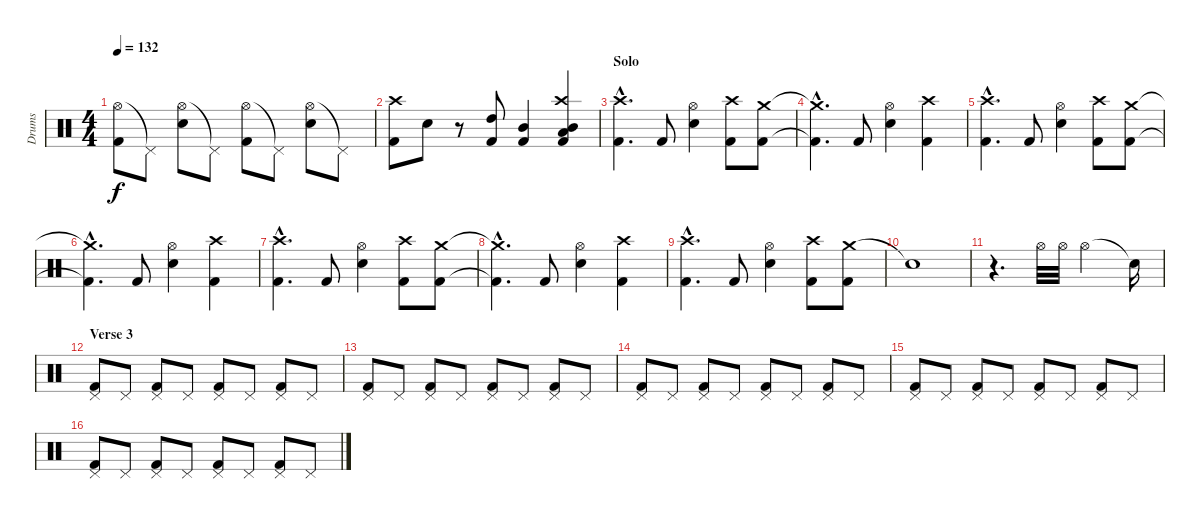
\track ("Drums" "Drums") {instrument percussion}
\staff {score}
\articulation defaults
\ts (4 4)
\tempo 132
\clef neutral
\ks c
("Hi-Hat (open)" "Kick (hit) 2").8{dy f} "Pedal Hi-Hat (hit)"{t}.8 ("Hi-Hat (open)" "Snare (hit) 2").8 "Pedal Hi-Hat (hit)"{t}.8 ("Hi-Hat (open)" "Kick (hit) 2").8 "Pedal Hi-Hat (hit)"{t}.8 ("Hi-Hat (open)" "Snare (hit) 2").8 "Pedal Hi-Hat (hit)"{t}.8 |
("Crash high (hit)" "Kick (hit) 2").8 "Snare (hit) 2".8 r.8 ("High Tom (hit)" "Kick (hit) 2").8 ("Mid Tom (hit)" "Kick (hit) 2").4 ("Crash high (hit)" "Low Tom (hit)" "Mid Tom (hit)" "Kick (hit) 2").4 |
\section ("" "Solo")
("Crash high (hit)"{hac} "Kick (hit) 2"{hac}).4{d} "Kick (hit) 2".8 ("Hi-Hat (open)" "Snare (hit) 2").4 ("Crash high (hit)" "Kick (hit) 2").8 ("Crash medium (hit)" "Kick (hit) 2").8 |
("Crash medium (hit)"{hac t} "Kick (hit) 2"{hac t}).4{d} "Kick (hit) 2".8 ("Hi-Hat (open)" "Snare (hit) 2").4 ("Crash high (hit)" "Kick (hit) 2").4 |
("Crash high (hit)"{hac} "Kick (hit) 2"{hac}).4{d} "Kick (hit) 2".8 ("Hi-Hat (open)" "Snare (hit) 2").4 ("Crash high (hit)" "Kick (hit) 2").8 ("Crash medium (hit)" "Kick (hit) 2").8 |
("Crash medium (hit)"{hac t} "Kick (hit) 2"{hac t}).4{d} "Kick (hit) 2".8 ("Hi-Hat (open)" "Snare (hit) 2").4 ("Crash high (hit)" "Kick (hit) 2").4 |
("Crash high (hit)"{hac} "Kick (hit) 2"{hac}).4{d} "Kick (hit) 2".8 ("Hi-Hat (open)" "Snare (hit) 2").4 ("Crash high (hit)" "Kick (hit) 2").8 ("Crash medium (hit)" "Kick (hit) 2").8 |
("Crash medium (hit)"{hac t} "Kick (hit) 2"{hac t}).4{d} "Kick (hit) 2".8 ("Hi-Hat (open)" "Snare (hit) 2").4 ("Crash high (hit)" "Kick (hit) 2").4 |
("Crash high (hit)"{hac} "Kick (hit) 2"{hac}).4{d} "Kick (hit) 2".8 ("Hi-Hat (open)" "Snare (hit) 2").4 ("Crash high (hit)" "Kick (hit) 2").8 ("Crash medium (hit)" "Kick (hit) 2").8 |
"Snare (hit)"{t}.1 |
r.4{d} "Hi-Hat (open)".32 "Hi-Hat (open)".32 "Hi-Hat (open)".2 "Snare (hit)"{t}.16 |
\section ("" "Verse 3")
("Pedal Hi-Hat (hit)" "Kick (hit) 2").8 "Pedal Hi-Hat (hit)".8 ("Pedal Hi-Hat (hit)" "Kick (hit) 2").8 "Pedal Hi-Hat (hit)".8 ("Pedal Hi-Hat (hit)" "Kick (hit) 2").8 "Pedal Hi-Hat (hit)".8 ("Pedal Hi-Hat (hit)" "Kick (hit) 2").8 "Pedal Hi-Hat (hit)".8 |
("Pedal Hi-Hat (hit)" "Kick (hit) 2").8 "Pedal Hi-Hat (hit)".8 ("Pedal Hi-Hat (hit)" "Kick (hit) 2").8 "Pedal Hi-Hat (hit)".8 ("Pedal Hi-Hat (hit)" "Kick (hit) 2").8 "Pedal Hi-Hat (hit)".8 ("Pedal Hi-Hat (hit)" "Kick (hit) 2").8 "Pedal Hi-Hat (hit)".8 |
("Pedal Hi-Hat (hit)" "Kick (hit) 2").8 "Pedal Hi-Hat (hit)".8 ("Pedal Hi-Hat (hit)" "Kick (hit) 2").8 "Pedal Hi-Hat (hit)".8 ("Pedal Hi-Hat (hit)" "Kick (hit) 2").8 "Pedal Hi-Hat (hit)".8 ("Pedal Hi-Hat (hit)" "Kick (hit) 2").8 "Pedal Hi-Hat (hit)".8 |
("Pedal Hi-Hat (hit)" "Kick (hit) 2").8 "Pedal Hi-Hat (hit)".8 ("Pedal Hi-Hat (hit)" "Kick (hit) 2").8 "Pedal Hi-Hat (hit)".8 ("Pedal Hi-Hat (hit)" "Kick (hit) 2").8 "Pedal Hi-Hat (hit)".8 ("Pedal Hi-Hat (hit)" "Kick (hit) 2").8 "Pedal Hi-Hat (hit)".8 |
("Pedal Hi-Hat (hit)" "Kick (hit) 2").8 "Pedal Hi-Hat (hit)".8 ("Pedal Hi-Hat (hit)" "Kick (hit) 2").8 "Pedal Hi-Hat (hit)".8 ("Pedal Hi-Hat (hit)" "Kick (hit) 2").8 "Pedal Hi-Hat (hit)".8 ("Pedal Hi-Hat (hit)" "Kick (hit) 2").8 "Pedal Hi-Hat (hit)".8
